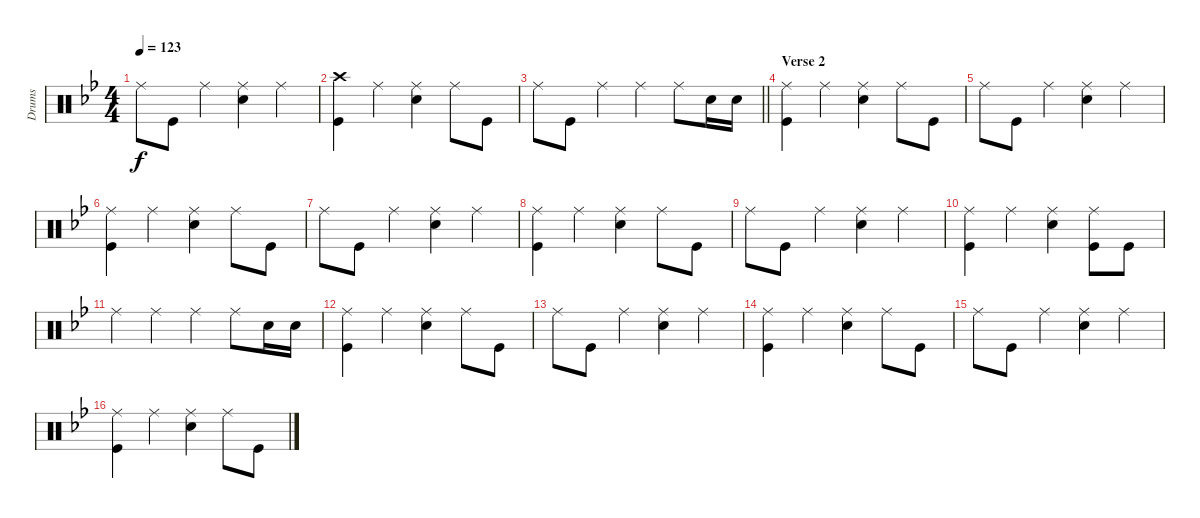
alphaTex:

\track ("Drums" "Drums") {instrument percussion}
\staff {score}
\articulation defaults
\ts (4 4)
\tempo 123
\clef neutral
\ks bb "Ride (middle)".8{dy f} "Kick (hit)".8 "Ride (middle)".4
("Ride (middle)" "Snare (hit) 2").4 "Ride (middle)".4 |
("Crash high (hit)" "Kick (hit)").4 "Ride (middle)".4 ("Ride (middle)" "Snare (hit) 2").4 "Ride (middle)".8 "Kick (hit)".8 |
\barLineRight lightlight "Ride (middle)".8 "Kick (hit)".8 "Ride (middle)".4 "Ride (middle)".4 "Ride (middle)".8 "Snare (hit) 2".16 "Snare (hit) 2".16
|
\section ("" "Verse 2")
("Ride (middle)" "Kick (hit)").4 "Ride (middle)".4 ("Ride (middle)" "Snare (hit) 2").4 "Ride (middle)".8 "Kick (hit)".8 |
"Ride (middle)".8 "Kick (hit)".8 "Ride (middle)".4 ("Ride (middle)" "Snare (hit) 2").4 "Ride (middle)".4 |
("Ride (middle)" "Kick (hit)").4 "Ride (middle)".4 ("Ride (middle)" "Snare (hit) 2").4 "Ride (middle)".8 "Kick (hit)".8 |
"Ride (middle)".8 "Kick (hit)".8 "Ride (middle)".4 ("Ride (middle)" "Snare (hit) 2").4 "Ride (middle)".4 |
("Ride (middle)" "Kick (hit)").4 "Ride (middle)".4 ("Ride (middle)" "Snare (hit) 2").4 "Ride (middle)".8 "Kick (hit)".8 |
"Ride (middle)".8 "Kick (hit)".8 "Ride (middle)".4 ("Ride (middle)" "Snare (hit) 2").4 "Ride (middle)".4 |
("Ride (middle)" "Kick (hit)").4 "Ride (middle)".4 ("Ride (middle)" "Snare (hit) 2").4 ("Ride (middle)" "Kick (hit)").8 "Kick (hit)".8 |
"Ride (middle)".4 "Ride (middle)".4 "Ride (middle)".4 "Ride (middle)".8 "Snare (hit) 2".16 "Snare (hit) 2".16 |
("Ride (middle)" "Kick (hit)").4 "Ride (middle)".4 ("Ride (middle)" "Snare (hit) 2").4 "Ride (middle)".8 "Kick (hit)".8 |
"Ride (middle)".8 "Kick (hit)".8 "Ride (middle)".4 ("Ride (middle)" "Snare (hit) 2").4 "Ride (middle)".4 |
("Ride (middle)" "Kick (hit)").4 "Ride (middle)".4 ("Ride (middle)" "Snare (hit) 2").4 "Ride (middle)".8 "Kick (hit)".8 |
"Ride (middle)".8 "Kick (hit)".8 "Ride (middle)".4 ("Ride (middle)" "Snare (hit) 2").4 "Ride (middle)".4 |
("Ride (middle)" "Kick (hit)").4 "Ride (middle)".4 ("Ride (middle)" "Snare (hit) 2").4 "Ride (middle)".8 "Kick (hit)".8
